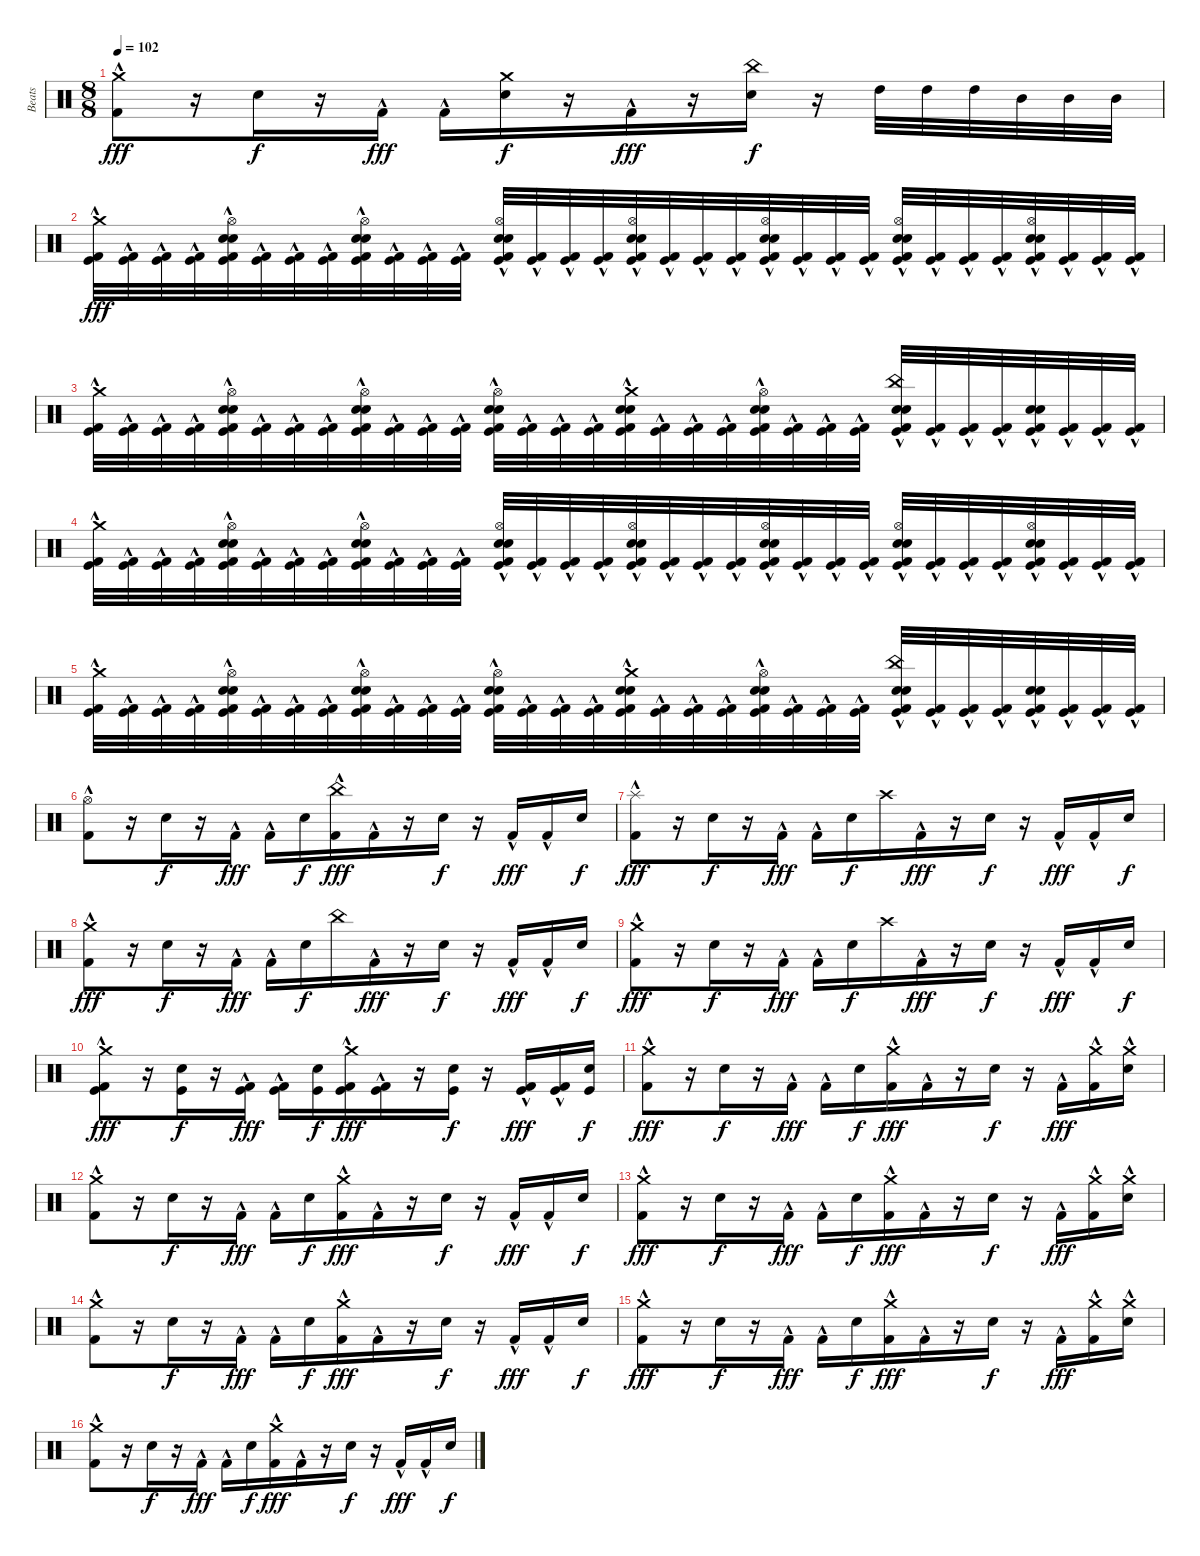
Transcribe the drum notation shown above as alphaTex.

\track ("Beats" "Beats") {instrument percussion}
\staff {score}
\articulation defaults
\ts (8 8)
\tempo 102
\clef neutral
\ks c
("Crash medium (hit)" "Kick (hit) 2"{hac}).8{dy fff} r.16 "Snare (hit) 2".16{dy f} r.16 "Kick (hit) 2"{hac}.16{dy fff} "Kick (hit) 2"{hac}.16 ("Crash medium (hit)" "Snare (hit) 2").16{dy f} r.16 "Kick (hit) 2"{hac}.16{dy fff} r.16 ("China (hit)" "Snare (hit) 2").16{dy f} r.16 "High Tom (hit)".32 "High Tom (hit)".32 "High Tom (hit)".32 "Mid Tom (hit)".32 "Mid Tom (hit)".32 "Mid Tom (hit)".32 |
("Crash medium (hit)"{hac} "Kick (hit)"{hac} "Kick (hit) 2"{hac}).32{dy fff} ("Kick (hit)"{hac} "Kick (hit) 2"{hac}).32 ("Kick (hit)"{hac} "Kick (hit) 2"{hac}).32 ("Kick (hit)"{hac} "Kick (hit) 2"{hac}).32 ("Hi-Hat (open)" "Electric Snare (hit)" "Snare (hit) 2" "Kick (hit)"{hac} "Kick (hit) 2"{hac}).32 ("Kick (hit)"{hac} "Kick (hit) 2"{hac}).32 ("Kick (hit)"{hac} "Kick (hit) 2"{hac}).32 ("Kick (hit)"{hac} "Kick (hit) 2"{hac}).32 ("Hi-Hat (open)" "Electric Snare (hit)" "Snare (hit) 2" "Kick (hit)"{hac} "Kick (hit) 2"{hac}).32 ("Kick (hit)"{hac} "Kick (hit) 2"{hac}).32 ("Kick (hit)"{hac} "Kick (hit) 2"{hac}).32 ("Kick (hit)"{hac} "Kick (hit) 2"{hac}).32 ("Hi-Hat (open)" "Electric Snare (hit)" "Snare (hit) 2" "Kick (hit)"{hac} "Kick (hit) 2"{hac}).32 ("Kick (hit)"{hac} "Kick (hit) 2"{hac}).32 ("Kick (hit)"{hac} "Kick (hit) 2"{hac}).32 ("Kick (hit)"{hac} "Kick (hit) 2"{hac}).32 ("Hi-Hat (open)" "Electric Snare (hit)" "Snare (hit) 2" "Kick (hit)"{hac} "Kick (hit) 2"{hac}).32 ("Kick (hit)"{hac} "Kick (hit) 2"{hac}).32 ("Kick (hit)"{hac} "Kick (hit) 2"{hac}).32 ("Kick (hit)"{hac} "Kick (hit) 2"{hac}).32 ("Hi-Hat (open)" "Electric Snare (hit)" "Snare (hit) 2" "Kick (hit)"{hac} "Kick (hit) 2"{hac}).32 ("Kick (hit)"{hac} "Kick (hit) 2"{hac}).32 ("Kick (hit)"{hac} "Kick (hit) 2"{hac}).32 ("Kick (hit)"{hac} "Kick (hit) 2"{hac}).32 ("Hi-Hat (open)" "Electric Snare (hit)" "Snare (hit) 2" "Kick (hit)"{hac} "Kick (hit) 2"{hac}).32 ("Kick (hit)"{hac} "Kick (hit) 2"{hac}).32 ("Kick (hit)"{hac} "Kick (hit) 2"{hac}).32 ("Kick (hit)"{hac} "Kick (hit) 2"{hac}).32 ("Hi-Hat (open)" "Electric Snare (hit)" "Snare (hit) 2" "Kick (hit)"{hac} "Kick (hit) 2"{hac}).32 ("Kick (hit)"{hac} "Kick (hit) 2"{hac}).32 ("Kick (hit)"{hac} "Kick (hit) 2"{hac}).32 ("Kick (hit)"{hac} "Kick (hit) 2"{hac}).32 |
("Crash medium (hit)"{hac} "Kick (hit)"{hac} "Kick (hit) 2"{hac}).32 ("Kick (hit)"{hac} "Kick (hit) 2"{hac}).32 ("Kick (hit)"{hac} "Kick (hit) 2"{hac}).32 ("Kick (hit)"{hac} "Kick (hit) 2"{hac}).32 ("Hi-Hat (open)" "Electric Snare (hit)" "Snare (hit) 2" "Kick (hit)"{hac} "Kick (hit) 2"{hac}).32 ("Kick (hit)"{hac} "Kick (hit) 2"{hac}).32 ("Kick (hit)"{hac} "Kick (hit) 2"{hac}).32 ("Kick (hit)"{hac} "Kick (hit) 2"{hac}).32 ("Hi-Hat (open)" "Electric Snare (hit)" "Snare (hit) 2" "Kick (hit)"{hac} "Kick (hit) 2"{hac}).32 ("Kick (hit)"{hac} "Kick (hit) 2"{hac}).32 ("Kick (hit)"{hac} "Kick (hit) 2"{hac}).32 ("Kick (hit)"{hac} "Kick (hit) 2"{hac}).32 ("Hi-Hat (open)" "Electric Snare (hit)" "Snare (hit) 2" "Kick (hit)"{hac} "Kick (hit) 2"{hac}).32 ("Kick (hit)"{hac} "Kick (hit) 2"{hac}).32 ("Kick (hit)"{hac} "Kick (hit) 2"{hac}).32 ("Kick (hit)"{hac} "Kick (hit) 2"{hac}).32 ("Crash medium (hit)"{hac} "Electric Snare (hit)" "Snare (hit) 2" "Kick (hit)"{hac} "Kick (hit) 2"{hac}).32 ("Kick (hit)"{hac} "Kick (hit) 2"{hac}).32 ("Kick (hit)"{hac} "Kick (hit) 2"{hac}).32 ("Kick (hit)"{hac} "Kick (hit) 2"{hac}).32 ("Hi-Hat (open)" "Electric Snare (hit)" "Snare (hit) 2" "Kick (hit)"{hac} "Kick (hit) 2"{hac}).32 ("Kick (hit)"{hac} "Kick (hit) 2"{hac}).32 ("Kick (hit)"{hac} "Kick (hit) 2"{hac}).32 ("Kick (hit)"{hac} "Kick (hit) 2"{hac}).32 ("China (hit)"{hac} "Electric Snare (hit)" "Snare (hit) 2" "Kick (hit)"{hac} "Kick (hit) 2"{hac}).32 ("Kick (hit)"{hac} "Kick (hit) 2"{hac}).32 ("Kick (hit)"{hac} "Kick (hit) 2"{hac}).32 ("Kick (hit)"{hac} "Kick (hit) 2"{hac}).32 ("Electric Snare (hit)" "Snare (hit) 2" "Kick (hit)"{hac} "Kick (hit) 2"{hac}).32 ("Kick (hit)"{hac} "Kick (hit) 2"{hac}).32 ("Kick (hit)"{hac} "Kick (hit) 2"{hac}).32 ("Kick (hit)"{hac} "Kick (hit) 2"{hac}).32 |
("Crash medium (hit)" "Kick (hit)"{hac} "Kick (hit) 2"{hac}).32 ("Kick (hit)"{hac} "Kick (hit) 2"{hac}).32 ("Kick (hit)"{hac} "Kick (hit) 2"{hac}).32 ("Kick (hit)"{hac} "Kick (hit) 2"{hac}).32 ("Hi-Hat (open)" "Electric Snare (hit)" "Snare (hit) 2" "Kick (hit)"{hac} "Kick (hit) 2"{hac}).32 ("Kick (hit)"{hac} "Kick (hit) 2"{hac}).32 ("Kick (hit)"{hac} "Kick (hit) 2"{hac}).32 ("Kick (hit)"{hac} "Kick (hit) 2"{hac}).32 ("Hi-Hat (open)" "Electric Snare (hit)" "Snare (hit) 2" "Kick (hit)"{hac} "Kick (hit) 2"{hac}).32 ("Kick (hit)"{hac} "Kick (hit) 2"{hac}).32 ("Kick (hit)"{hac} "Kick (hit) 2"{hac}).32 ("Kick (hit)"{hac} "Kick (hit) 2"{hac}).32 ("Hi-Hat (open)" "Electric Snare (hit)" "Snare (hit) 2" "Kick (hit)"{hac} "Kick (hit) 2"{hac}).32 ("Kick (hit)"{hac} "Kick (hit) 2"{hac}).32 ("Kick (hit)"{hac} "Kick (hit) 2"{hac}).32 ("Kick (hit)"{hac} "Kick (hit) 2"{hac}).32 ("Hi-Hat (open)" "Electric Snare (hit)" "Snare (hit) 2" "Kick (hit)"{hac} "Kick (hit) 2"{hac}).32 ("Kick (hit)"{hac} "Kick (hit) 2"{hac}).32 ("Kick (hit)"{hac} "Kick (hit) 2"{hac}).32 ("Kick (hit)"{hac} "Kick (hit) 2"{hac}).32 ("Hi-Hat (open)" "Electric Snare (hit)" "Snare (hit) 2" "Kick (hit)"{hac} "Kick (hit) 2"{hac}).32 ("Kick (hit)"{hac} "Kick (hit) 2"{hac}).32 ("Kick (hit)"{hac} "Kick (hit) 2"{hac}).32 ("Kick (hit)"{hac} "Kick (hit) 2"{hac}).32 ("Hi-Hat (open)" "Electric Snare (hit)" "Snare (hit) 2" "Kick (hit)"{hac} "Kick (hit) 2"{hac}).32 ("Kick (hit)"{hac} "Kick (hit) 2"{hac}).32 ("Kick (hit)"{hac} "Kick (hit) 2"{hac}).32 ("Kick (hit)"{hac} "Kick (hit) 2"{hac}).32 ("Hi-Hat (open)" "Electric Snare (hit)" "Snare (hit) 2" "Kick (hit)"{hac} "Kick (hit) 2"{hac}).32 ("Kick (hit)"{hac} "Kick (hit) 2"{hac}).32 ("Kick (hit)"{hac} "Kick (hit) 2"{hac}).32 ("Kick (hit)"{hac} "Kick (hit) 2"{hac}).32 |
("Crash medium (hit)"{hac} "Kick (hit)"{hac} "Kick (hit) 2"{hac}).32 ("Kick (hit)"{hac} "Kick (hit) 2"{hac}).32 ("Kick (hit)"{hac} "Kick (hit) 2"{hac}).32 ("Kick (hit)"{hac} "Kick (hit) 2"{hac}).32 ("Hi-Hat (open)" "Electric Snare (hit)" "Snare (hit) 2" "Kick (hit)"{hac} "Kick (hit) 2"{hac}).32 ("Kick (hit)"{hac} "Kick (hit) 2"{hac}).32 ("Kick (hit)"{hac} "Kick (hit) 2"{hac}).32 ("Kick (hit)"{hac} "Kick (hit) 2"{hac}).32 ("Hi-Hat (open)" "Electric Snare (hit)" "Snare (hit) 2" "Kick (hit)"{hac} "Kick (hit) 2"{hac}).32 ("Kick (hit)"{hac} "Kick (hit) 2"{hac}).32 ("Kick (hit)"{hac} "Kick (hit) 2"{hac}).32 ("Kick (hit)"{hac} "Kick (hit) 2"{hac}).32 ("Hi-Hat (open)" "Electric Snare (hit)" "Snare (hit) 2" "Kick (hit)"{hac} "Kick (hit) 2"{hac}).32 ("Kick (hit)"{hac} "Kick (hit) 2"{hac}).32 ("Kick (hit)"{hac} "Kick (hit) 2"{hac}).32 ("Kick (hit)"{hac} "Kick (hit) 2"{hac}).32 ("Crash medium (hit)"{hac} "Electric Snare (hit)" "Snare (hit) 2" "Kick (hit)"{hac} "Kick (hit) 2"{hac}).32 ("Kick (hit)"{hac} "Kick (hit) 2"{hac}).32 ("Kick (hit)"{hac} "Kick (hit) 2"{hac}).32 ("Kick (hit)"{hac} "Kick (hit) 2"{hac}).32 ("Hi-Hat (open)" "Electric Snare (hit)" "Snare (hit) 2" "Kick (hit)"{hac} "Kick (hit) 2"{hac}).32 ("Kick (hit)"{hac} "Kick (hit) 2"{hac}).32 ("Kick (hit)"{hac} "Kick (hit) 2"{hac}).32 ("Kick (hit)"{hac} "Kick (hit) 2"{hac}).32 ("China (hit)"{hac} "Electric Snare (hit)" "Snare (hit) 2" "Kick (hit)"{hac} "Kick (hit) 2"{hac}).32 ("Kick (hit)"{hac} "Kick (hit) 2"{hac}).32 ("Kick (hit)"{hac} "Kick (hit) 2"{hac}).32 ("Kick (hit)"{hac} "Kick (hit) 2"{hac}).32 ("Electric Snare (hit)" "Snare (hit) 2" "Kick (hit)"{hac} "Kick (hit) 2"{hac}).32 ("Kick (hit)"{hac} "Kick (hit) 2"{hac}).32 ("Kick (hit)"{hac} "Kick (hit) 2"{hac}).32 ("Kick (hit)"{hac} "Kick (hit) 2"{hac}).32 |
("Hi-Hat (open)" "Kick (hit) 2"{hac}).8 r.16 "Snare (hit) 2".16{dy f} r.16 "Kick (hit) 2"{hac}.16{dy fff} "Kick (hit) 2"{hac}.16 "Snare (hit) 2".16{dy f} ("China (hit)"{hac} "Kick (hit) 2"{hac}).16{dy fff} "Kick (hit) 2"{hac}.16 r.16 "Snare (hit) 2".16{dy f} r.16 "Kick (hit) 2"{hac}.16{dy fff} "Kick (hit) 2"{hac}.16 "Snare (hit) 2".16{dy f} |
("Splash (hit)"{hac} "Kick (hit) 2"{hac}).8{dy fff} r.16 "Snare (hit) 2".16{dy f} r.16 "Kick (hit) 2"{hac}.16{dy fff} "Kick (hit) 2"{hac}.16 "Snare (hit) 2".16{dy f} "Crash high (hit)".16 "Kick (hit) 2"{hac}.16{dy fff} r.16 "Snare (hit) 2".16{dy f} r.16 "Kick (hit) 2"{hac}.16{dy fff} "Kick (hit) 2"{hac}.16 "Snare (hit) 2".16{dy f} |
("Crash medium (hit)" "Kick (hit) 2"{hac}).8{dy fff} r.16 "Snare (hit) 2".16{dy f} r.16 "Kick (hit) 2"{hac}.16{dy fff} "Kick (hit) 2"{hac}.16 "Snare (hit) 2".16{dy f} "China (hit)".16 "Kick (hit) 2"{hac}.16{dy fff} r.16 "Snare (hit) 2".16{dy f} r.16 "Kick (hit) 2"{hac}.16{dy fff} "Kick (hit) 2"{hac}.16 "Snare (hit) 2".16{dy f} |
("Crash medium (hit)" "Kick (hit) 2"{hac}).8{dy fff} r.16 "Snare (hit) 2".16{dy f} r.16 "Kick (hit) 2"{hac}.16{dy fff} "Kick (hit) 2"{hac}.16 "Snare (hit) 2".16{dy f} "Crash high (hit)".16 "Kick (hit) 2"{hac}.16{dy fff} r.16 "Snare (hit) 2".16{dy f} r.16 "Kick (hit) 2"{hac}.16{dy fff} "Kick (hit) 2"{hac}.16 "Snare (hit) 2".16{dy f} |
("Crash medium (hit)"{hac} "Kick (hit)" "Kick (hit) 2").8{dy fff} r.16 ("Snare (hit) 2" "Kick (hit)").16{dy f} r.16 ("Kick (hit)" "Kick (hit) 2"{hac}).16{dy fff} ("Kick (hit)" "Kick (hit) 2"{hac}).16 ("Snare (hit) 2" "Kick (hit)").16{dy f} ("Crash medium (hit)"{hac} "Kick (hit)" "Kick (hit) 2"{hac}).16{dy fff} ("Kick (hit)" "Kick (hit) 2"{hac}).16 r.16 ("Snare (hit) 2" "Kick (hit)").16{dy f} r.16 ("Kick (hit)" "Kick (hit) 2"{hac}).16{dy fff} ("Kick (hit)" "Kick (hit) 2"{hac}).16 ("Snare (hit) 2" "Kick (hit)").16{dy f} |
("Crash medium (hit)" "Kick (hit) 2"{hac}).8{dy fff} r.16 "Snare (hit) 2".16{dy f} r.16 "Kick (hit) 2"{hac}.16{dy fff} "Kick (hit) 2"{hac}.16 "Snare (hit) 2".16{dy f} ("Crash medium (hit)"{hac} "Kick (hit) 2"{hac}).16{dy fff} "Kick (hit) 2"{hac}.16 r.16 "Snare (hit) 2".16{dy f} r.16 "Kick (hit) 2"{hac}.16{dy fff} ("Crash medium (hit)"{hac} "Kick (hit) 2"{hac}).16 ("Crash medium (hit)"{hac} "Snare (hit) 2"{hac}).16 |
("Crash medium (hit)" "Kick (hit) 2"{hac}).8 r.16 "Snare (hit) 2".16{dy f} r.16 "Kick (hit) 2"{hac}.16{dy fff} "Kick (hit) 2"{hac}.16 "Snare (hit) 2".16{dy f} ("Crash medium (hit)"{hac} "Kick (hit) 2"{hac}).16{dy fff} "Kick (hit) 2"{hac}.16 r.16 "Snare (hit) 2".16{dy f} r.16 "Kick (hit) 2"{hac}.16{dy fff} "Kick (hit) 2"{hac}.16 "Snare (hit) 2".16{dy f} |
("Crash medium (hit)" "Kick (hit) 2"{hac}).8{dy fff} r.16 "Snare (hit) 2".16{dy f} r.16 "Kick (hit) 2"{hac}.16{dy fff} "Kick (hit) 2"{hac}.16 "Snare (hit) 2".16{dy f} ("Crash medium (hit)"{hac} "Kick (hit) 2"{hac}).16{dy fff} "Kick (hit) 2"{hac}.16 r.16 "Snare (hit) 2".16{dy f} r.16 "Kick (hit) 2"{hac}.16{dy fff} ("Crash medium (hit)"{hac} "Kick (hit) 2"{hac}).16 ("Crash medium (hit)"{hac} "Snare (hit) 2"{hac}).16 |
("Crash medium (hit)" "Kick (hit) 2"{hac}).8 r.16 "Snare (hit) 2".16{dy f} r.16 "Kick (hit) 2"{hac}.16{dy fff} "Kick (hit) 2"{hac}.16 "Snare (hit) 2".16{dy f} ("Crash medium (hit)"{hac} "Kick (hit) 2"{hac}).16{dy fff} "Kick (hit) 2"{hac}.16 r.16 "Snare (hit) 2".16{dy f} r.16 "Kick (hit) 2"{hac}.16{dy fff} "Kick (hit) 2"{hac}.16 "Snare (hit) 2".16{dy f} |
("Crash medium (hit)" "Kick (hit) 2"{hac}).8{dy fff} r.16 "Snare (hit) 2".16{dy f} r.16 "Kick (hit) 2"{hac}.16{dy fff} "Kick (hit) 2"{hac}.16 "Snare (hit) 2".16{dy f} ("Crash medium (hit)"{hac} "Kick (hit) 2"{hac}).16{dy fff} "Kick (hit) 2"{hac}.16 r.16 "Snare (hit) 2".16{dy f} r.16 "Kick (hit) 2"{hac}.16{dy fff} ("Crash medium (hit)"{hac} "Kick (hit) 2"{hac}).16 ("Crash medium (hit)"{hac} "Snare (hit) 2"{hac}).16 |
("Crash medium (hit)" "Kick (hit) 2"{hac}).8 r.16 "Snare (hit) 2".16{dy f} r.16 "Kick (hit) 2"{hac}.16{dy fff} "Kick (hit) 2"{hac}.16 "Snare (hit) 2".16{dy f} ("Crash medium (hit)"{hac} "Kick (hit) 2"{hac}).16{dy fff} "Kick (hit) 2"{hac}.16 r.16 "Snare (hit) 2".16{dy f} r.16 "Kick (hit) 2"{hac}.16{dy fff} "Kick (hit) 2"{hac}.16 "Snare (hit) 2".16{dy f}
